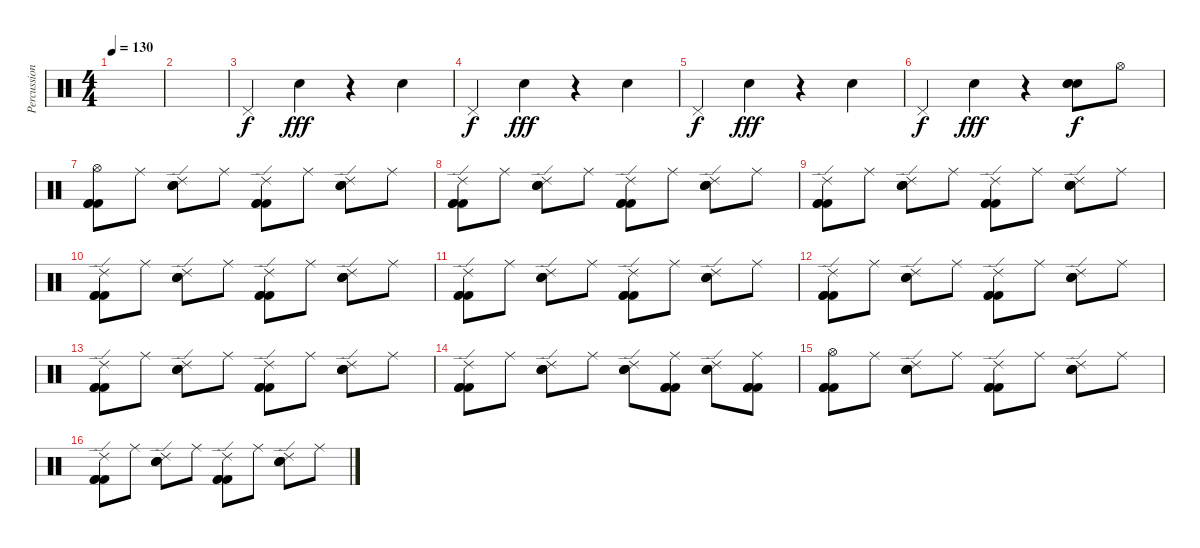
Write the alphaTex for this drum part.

\track ("Percussion" "Percussion") {instrument percussion}
\staff {score}
\articulation defaults
\ts (4 4)
\tempo 130
\clef neutral
\ks c
|
|
"Pedal Hi-Hat (hit)".4 "Hand Clap (hit)".4{dy fff} r.4 "Hand Clap (hit)".4 |
"Pedal Hi-Hat (hit)".4{dy f} "Hand Clap (hit)".4{dy fff} r.4 "Hand Clap (hit)".4 |
"Pedal Hi-Hat (hit)".4{dy f} "Hand Clap (hit)".4{dy fff} r.4 "Hand Clap (hit)".4 |
"Pedal Hi-Hat (hit)".4{dy f} "Hand Clap (hit)".4{dy fff} r.4 ("Electric Snare (hit)" "Electric Snare (hit)" "Electric Snare (hit)").8{dy f} "Hi-Hat (open)".8 |
("Hi-Hat (open)" "Kick (hit) 2" "Kick (hit) 2" "Kick (hit) 2").8 "Ride (middle)".8 ("Ride (edge) 2" "Electric Snare (hit)" "Electric Snare (hit)" "Electric Snare (hit)").8 "Ride (middle)".8 ("Ride (edge) 2" "Kick (hit) 2" "Kick (hit) 2" "Kick (hit) 2").8 "Ride (middle)".8 ("Ride (edge) 2" "Electric Snare (hit)" "Electric Snare (hit)" "Electric Snare (hit)").8 "Ride (middle)".8 |
("Ride (edge) 2" "Kick (hit) 2" "Kick (hit) 2" "Kick (hit) 2").8 "Ride (middle)".8 ("Ride (edge) 2" "Electric Snare (hit)" "Electric Snare (hit)" "Electric Snare (hit)").8 "Ride (middle)".8 ("Ride (edge) 2" "Kick (hit) 2" "Kick (hit) 2" "Kick (hit) 2").8 "Ride (middle)".8 ("Ride (edge) 2" "Electric Snare (hit)" "Electric Snare (hit)" "Electric Snare (hit)").8 "Ride (middle)".8 |
("Ride (edge) 2" "Kick (hit) 2" "Kick (hit) 2" "Kick (hit) 2").8 "Ride (middle)".8 ("Ride (edge) 2" "Electric Snare (hit)" "Electric Snare (hit)" "Electric Snare (hit)").8 "Ride (middle)".8 ("Ride (edge) 2" "Kick (hit) 2" "Kick (hit) 2" "Kick (hit) 2").8 "Ride (middle)".8 ("Ride (edge) 2" "Electric Snare (hit)" "Electric Snare (hit)" "Electric Snare (hit)").8 "Ride (middle)".8 |
("Ride (edge) 2" "Kick (hit) 2" "Kick (hit) 2" "Kick (hit) 2").8 "Ride (middle)".8 ("Ride (edge) 2" "Electric Snare (hit)" "Electric Snare (hit)" "Electric Snare (hit)").8 "Ride (middle)".8 ("Ride (edge) 2" "Kick (hit) 2" "Kick (hit) 2" "Kick (hit) 2").8 "Ride (middle)".8 ("Ride (edge) 2" "Electric Snare (hit)" "Electric Snare (hit)" "Electric Snare (hit)").8 "Ride (middle)".8 |
("Ride (edge) 2" "Kick (hit) 2" "Kick (hit) 2" "Kick (hit) 2").8 "Ride (middle)".8 ("Ride (edge) 2" "Electric Snare (hit)" "Electric Snare (hit)" "Electric Snare (hit)").8 "Ride (middle)".8 ("Ride (edge) 2" "Kick (hit) 2" "Kick (hit) 2" "Kick (hit) 2").8 "Ride (middle)".8 ("Ride (edge) 2" "Electric Snare (hit)" "Electric Snare (hit)" "Electric Snare (hit)").8 "Ride (middle)".8 |
("Ride (edge) 2" "Kick (hit) 2" "Kick (hit) 2" "Kick (hit) 2").8 "Ride (middle)".8 ("Ride (edge) 2" "Electric Snare (hit)" "Electric Snare (hit)" "Electric Snare (hit)").8 "Ride (middle)".8 ("Ride (edge) 2" "Kick (hit) 2" "Kick (hit) 2" "Kick (hit) 2").8 "Ride (middle)".8 ("Ride (edge) 2" "Electric Snare (hit)" "Electric Snare (hit)" "Electric Snare (hit)").8 "Ride (middle)".8 |
("Ride (edge) 2" "Kick (hit) 2" "Kick (hit) 2" "Kick (hit) 2").8 "Ride (middle)".8 ("Ride (edge) 2" "Electric Snare (hit)" "Electric Snare (hit)" "Electric Snare (hit)").8 "Ride (middle)".8 ("Ride (edge) 2" "Kick (hit) 2" "Kick (hit) 2" "Kick (hit) 2").8 "Ride (middle)".8 ("Ride (edge) 2" "Electric Snare (hit)" "Electric Snare (hit)" "Electric Snare (hit)").8 "Ride (middle)".8 |
("Ride (edge) 2" "Kick (hit) 2" "Kick (hit) 2" "Kick (hit) 2").8 "Ride (middle)".8 ("Ride (edge) 2" "Electric Snare (hit)" "Electric Snare (hit)" "Electric Snare (hit)").8 "Ride (middle)".8 ("Ride (edge) 2" "Electric Snare (hit)" "Electric Snare (hit)" "Electric Snare (hit)").8 ("Ride (middle)" "Kick (hit) 2" "Kick (hit) 2" "Kick (hit) 2").8 ("Ride (edge) 2" "Electric Snare (hit)" "Electric Snare (hit)" "Electric Snare (hit)").8 ("Ride (middle)" "Kick (hit) 2" "Kick (hit) 2" "Kick (hit) 2").8 |
("Hi-Hat (open)" "Kick (hit) 2" "Kick (hit) 2" "Kick (hit) 2").8 "Ride (middle)".8 ("Ride (edge) 2" "Electric Snare (hit)" "Electric Snare (hit)" "Electric Snare (hit)").8 "Ride (middle)".8 ("Ride (edge) 2" "Kick (hit) 2" "Kick (hit) 2" "Kick (hit) 2").8 "Ride (middle)".8 ("Ride (edge) 2" "Electric Snare (hit)" "Electric Snare (hit)" "Electric Snare (hit)").8 "Ride (middle)".8 |
("Ride (edge) 2" "Kick (hit) 2" "Kick (hit) 2" "Kick (hit) 2").8 "Ride (middle)".8 ("Ride (edge) 2" "Electric Snare (hit)" "Electric Snare (hit)" "Electric Snare (hit)").8 "Ride (middle)".8 ("Ride (edge) 2" "Kick (hit) 2" "Kick (hit) 2" "Kick (hit) 2").8 "Ride (middle)".8 ("Ride (edge) 2" "Electric Snare (hit)" "Electric Snare (hit)" "Electric Snare (hit)").8 "Ride (middle)".8
